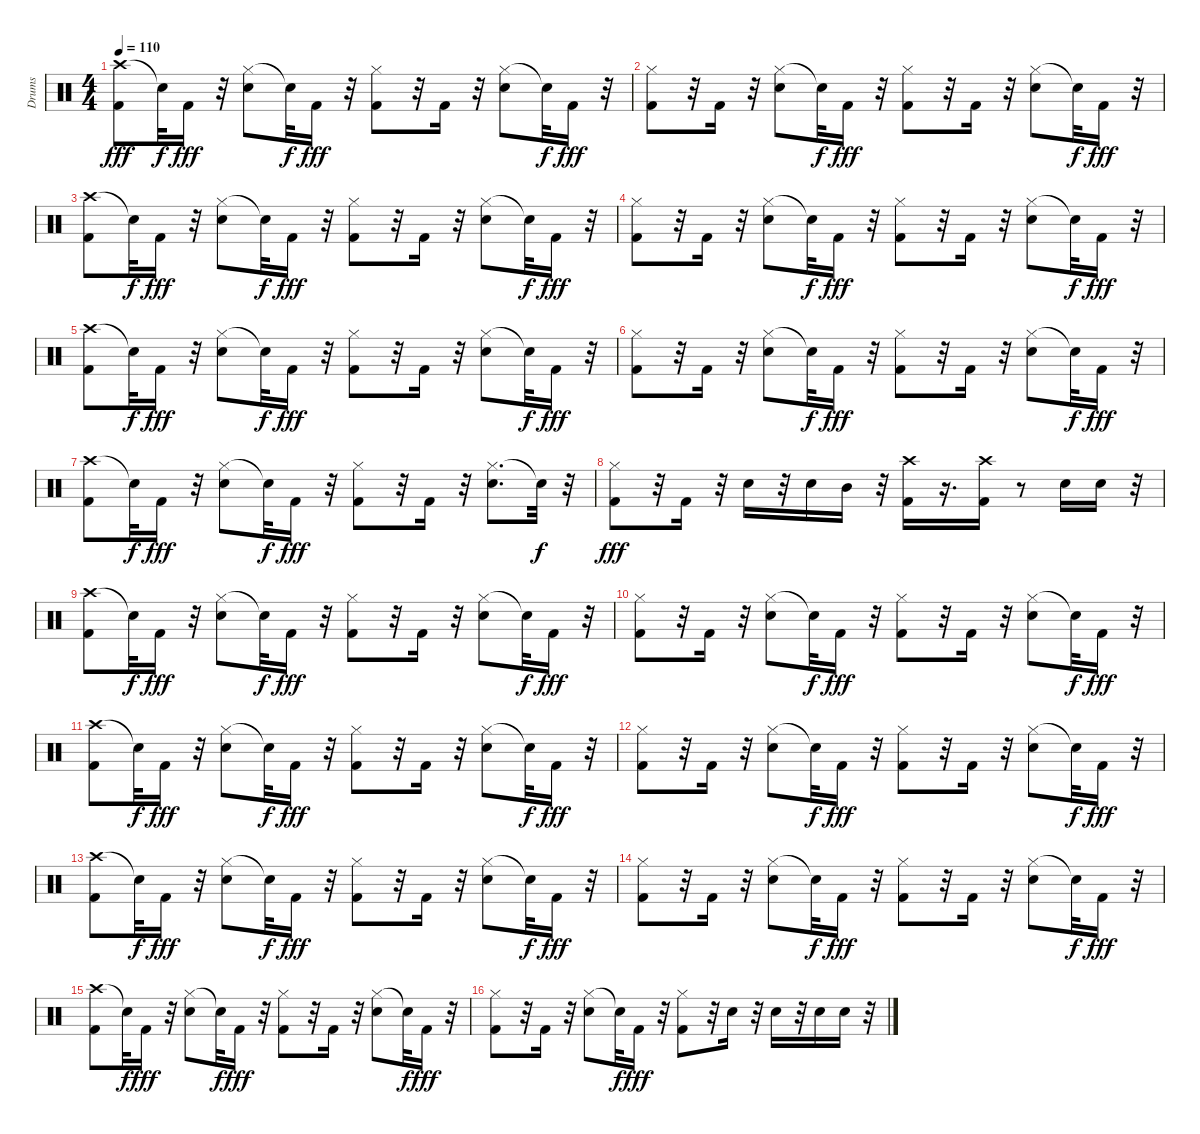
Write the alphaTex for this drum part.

\track ("Drums" "Drums") {instrument percussion}
\staff {score}
\articulation defaults
\ts (4 4)
\tempo 110
\clef neutral
\ks c
("Crash high (hit)" "Kick (hit) 2").8{dy fff} "Snare (hit)"{t}.32{dy f} "Kick (hit) 2".16{dy fff} r.32 ("Hi-Hat (closed)" "Snare (hit) 2").8 "Snare (hit)"{t}.32{dy f} "Kick (hit) 2".16{dy fff} r.32 ("Kick (hit) 2" "Hi-Hat (closed)").8 r.32 "Kick (hit) 2".16 r.32 ("Hi-Hat (closed)" "Snare (hit) 2").8 "Snare (hit)"{t}.32{dy f} "Kick (hit) 2".16{dy fff} r.32 |
("Kick (hit) 2" "Hi-Hat (closed)").8 r.32 "Kick (hit) 2".16 r.32 ("Hi-Hat (closed)" "Snare (hit) 2").8 "Snare (hit)"{t}.32{dy f} "Kick (hit) 2".16{dy fff} r.32 ("Kick (hit) 2" "Hi-Hat (closed)").8 r.32 "Kick (hit) 2".16 r.32 ("Hi-Hat (closed)" "Snare (hit) 2").8 "Snare (hit)"{t}.32{dy f} "Kick (hit) 2".16{dy fff} r.32 |
("Crash high (hit)" "Kick (hit) 2").8 "Snare (hit)"{t}.32{dy f} "Kick (hit) 2".16{dy fff} r.32 ("Hi-Hat (closed)" "Snare (hit) 2").8 "Snare (hit)"{t}.32{dy f} "Kick (hit) 2".16{dy fff} r.32 ("Kick (hit) 2" "Hi-Hat (closed)").8 r.32 "Kick (hit) 2".16 r.32 ("Hi-Hat (closed)" "Snare (hit) 2").8 "Snare (hit)"{t}.32{dy f} "Kick (hit) 2".16{dy fff} r.32 |
("Kick (hit) 2" "Hi-Hat (closed)").8 r.32 "Kick (hit) 2".16 r.32 ("Hi-Hat (closed)" "Snare (hit) 2").8 "Snare (hit)"{t}.32{dy f} "Kick (hit) 2".16{dy fff} r.32 ("Kick (hit) 2" "Hi-Hat (closed)").8 r.32 "Kick (hit) 2".16 r.32 ("Hi-Hat (closed)" "Snare (hit) 2").8 "Snare (hit)"{t}.32{dy f} "Kick (hit) 2".16{dy fff} r.32 |
("Crash high (hit)" "Kick (hit) 2").8 "Snare (hit)"{t}.32{dy f} "Kick (hit) 2".16{dy fff} r.32 ("Hi-Hat (closed)" "Snare (hit) 2").8 "Snare (hit)"{t}.32{dy f} "Kick (hit) 2".16{dy fff} r.32 ("Kick (hit) 2" "Hi-Hat (closed)").8 r.32 "Kick (hit) 2".16 r.32 ("Hi-Hat (closed)" "Snare (hit) 2").8 "Snare (hit)"{t}.32{dy f} "Kick (hit) 2".16{dy fff} r.32 |
("Kick (hit) 2" "Hi-Hat (closed)").8 r.32 "Kick (hit) 2".16 r.32 ("Hi-Hat (closed)" "Snare (hit) 2").8 "Snare (hit)"{t}.32{dy f} "Kick (hit) 2".16{dy fff} r.32 ("Kick (hit) 2" "Hi-Hat (closed)").8 r.32 "Kick (hit) 2".16 r.32 ("Hi-Hat (closed)" "Snare (hit) 2").8 "Snare (hit)"{t}.32{dy f} "Kick (hit) 2".16{dy fff} r.32 |
("Crash high (hit)" "Kick (hit) 2").8 "Snare (hit)"{t}.32{dy f} "Kick (hit) 2".16{dy fff} r.32 ("Hi-Hat (closed)" "Snare (hit) 2").8 "Snare (hit)"{t}.32{dy f} "Kick (hit) 2".16{dy fff} r.32 ("Kick (hit) 2" "Hi-Hat (closed)").8 r.32 "Kick (hit) 2".16 r.32 ("Hi-Hat (closed)" "Snare (hit) 2").8{d} "Snare (hit)"{t}.32{dy f} r.32 |
("Hi-Hat (closed)" "Kick (hit) 2").8{dy fff} r.32 "Kick (hit) 2".16 r.32 "Snare (hit) 2".16 r.32 "Snare (hit) 2".16 "Mid Tom (hit)".16 r.32 ("Kick (hit) 2" "Crash high (hit)").16 r.16{d} ("Kick (hit) 2" "Crash high (hit)").16 r.8 "Snare (hit) 2".16 "Snare (hit) 2".16 r.32 |
("Crash high (hit)" "Kick (hit) 2").8 "Snare (hit)"{t}.32{dy f} "Kick (hit) 2".16{dy fff} r.32 ("Hi-Hat (closed)" "Snare (hit) 2").8 "Snare (hit)"{t}.32{dy f} "Kick (hit) 2".16{dy fff} r.32 ("Kick (hit) 2" "Hi-Hat (closed)").8 r.32 "Kick (hit) 2".16 r.32 ("Hi-Hat (closed)" "Snare (hit) 2").8 "Snare (hit)"{t}.32{dy f} "Kick (hit) 2".16{dy fff} r.32 |
("Kick (hit) 2" "Hi-Hat (closed)").8 r.32 "Kick (hit) 2".16 r.32 ("Hi-Hat (closed)" "Snare (hit) 2").8 "Snare (hit)"{t}.32{dy f} "Kick (hit) 2".16{dy fff} r.32 ("Kick (hit) 2" "Hi-Hat (closed)").8 r.32 "Kick (hit) 2".16 r.32 ("Hi-Hat (closed)" "Snare (hit) 2").8 "Snare (hit)"{t}.32{dy f} "Kick (hit) 2".16{dy fff} r.32 |
("Crash high (hit)" "Kick (hit) 2").8 "Snare (hit)"{t}.32{dy f} "Kick (hit) 2".16{dy fff} r.32 ("Hi-Hat (closed)" "Snare (hit) 2").8 "Snare (hit)"{t}.32{dy f} "Kick (hit) 2".16{dy fff} r.32 ("Kick (hit) 2" "Hi-Hat (closed)").8 r.32 "Kick (hit) 2".16 r.32 ("Hi-Hat (closed)" "Snare (hit) 2").8 "Snare (hit)"{t}.32{dy f} "Kick (hit) 2".16{dy fff} r.32 |
("Kick (hit) 2" "Hi-Hat (closed)").8 r.32 "Kick (hit) 2".16 r.32 ("Hi-Hat (closed)" "Snare (hit) 2").8 "Snare (hit)"{t}.32{dy f} "Kick (hit) 2".16{dy fff} r.32 ("Kick (hit) 2" "Hi-Hat (closed)").8 r.32 "Kick (hit) 2".16 r.32 ("Hi-Hat (closed)" "Snare (hit) 2").8 "Snare (hit)"{t}.32{dy f} "Kick (hit) 2".16{dy fff} r.32 |
("Crash high (hit)" "Kick (hit) 2").8 "Snare (hit)"{t}.32{dy f} "Kick (hit) 2".16{dy fff} r.32 ("Hi-Hat (closed)" "Snare (hit) 2").8 "Snare (hit)"{t}.32{dy f} "Kick (hit) 2".16{dy fff} r.32 ("Kick (hit) 2" "Hi-Hat (closed)").8 r.32 "Kick (hit) 2".16 r.32 ("Hi-Hat (closed)" "Snare (hit) 2").8 "Snare (hit)"{t}.32{dy f} "Kick (hit) 2".16{dy fff} r.32 |
("Kick (hit) 2" "Hi-Hat (closed)").8 r.32 "Kick (hit) 2".16 r.32 ("Hi-Hat (closed)" "Snare (hit) 2").8 "Snare (hit)"{t}.32{dy f} "Kick (hit) 2".16{dy fff} r.32 ("Kick (hit) 2" "Hi-Hat (closed)").8 r.32 "Kick (hit) 2".16 r.32 ("Hi-Hat (closed)" "Snare (hit) 2").8 "Snare (hit)"{t}.32{dy f} "Kick (hit) 2".16{dy fff} r.32 |
("Crash high (hit)" "Kick (hit) 2").8 "Snare (hit)"{t}.32{dy f} "Kick (hit) 2".16{dy fff} r.32 ("Hi-Hat (closed)" "Snare (hit) 2").8 "Snare (hit)"{t}.32{dy f} "Kick (hit) 2".16{dy fff} r.32 ("Kick (hit) 2" "Hi-Hat (closed)").8 r.32 "Kick (hit) 2".16 r.32 ("Hi-Hat (closed)" "Snare (hit) 2").8 "Snare (hit)"{t}.32{dy f} "Kick (hit) 2".16{dy fff} r.32 |
("Kick (hit) 2" "Hi-Hat (closed)").8 r.32 "Kick (hit) 2".16 r.32 ("Hi-Hat (closed)" "Snare (hit) 2").8 "Snare (hit)"{t}.32{dy f} "Kick (hit) 2".16{dy fff} r.32 ("Kick (hit) 2" "Hi-Hat (closed)").8 r.32 "Snare (hit) 2".16 r.32 "Snare (hit) 2".16 r.32 "Snare (hit) 2".16 "Snare (hit) 2".16 r.32
